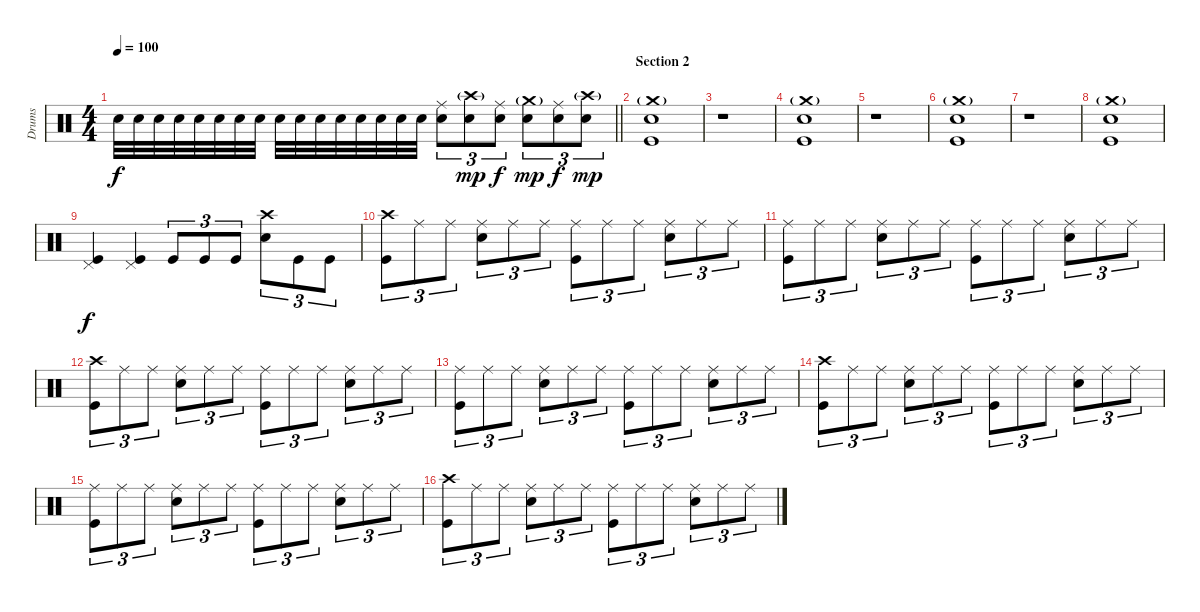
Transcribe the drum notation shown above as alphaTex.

\track ("Drums" "Drums") {instrument percussion}
\staff {score}
\articulation defaults
\ts (4 4)
\tempo 100
\clef neutral
\barLineRight lightlight
\ks c "Snare (hit) 2".32{dy f} "Snare (hit) 2".32 "Snare (hit) 2".32 "Snare (hit) 2".32 "Snare (hit) 2".32 "Snare (hit) 2".32 "Snare (hit) 2".32 "Snare (hit) 2".32 "Snare (hit) 2".32 "Snare (hit) 2".32 "Snare (hit) 2".32 "Snare (hit) 2".32 "Snare (hit) 2".32 "Snare (hit) 2".32 "Snare (hit) 2".32 "Snare (hit) 2".32
("Ride (middle)" "Snare (hit) 2").8{tu (3 2)} ("Crash high (hit)"{g} "Snare (hit) 2").8{tu (3 2) dy mp} ("Ride (middle)" "Snare (hit) 2").8{tu (3 2) dy f} ("Crash medium (hit)"{g} "Snare (hit) 2").8{tu (3 2) dy mp} ("Ride (middle)" "Snare (hit) 2").8{tu (3 2) dy f} ("Crash high (hit)"{g} "Snare (hit) 2").8{tu (3 2) dy mp} |
\section ("" "Section 2")
("Crash medium (hit)"{g} "Snare (hit) 2" "Kick (hit)").1 |
r.1 |
("Crash medium (hit)"{g} "Snare (hit) 2" "Kick (hit)").1 |
r.1 |
("Crash medium (hit)"{g} "Snare (hit) 2" "Kick (hit)").1 |
r.1 |
("Crash medium (hit)"{g} "Snare (hit) 2" "Kick (hit)").1 |
("Pedal Hi-Hat (hit)" "Kick (hit)").4{dy f} ("Pedal Hi-Hat (hit)" "Kick (hit)").4 "Kick (hit)".8{tu (3 2)} "Kick (hit)".8{tu (3 2)} "Kick (hit)".8{tu (3 2)} ("Crash high (hit)" "Snare (hit) 2").8{tu (3 2)} "Kick (hit)".8{tu (3 2)} "Kick (hit)".8{tu (3 2)} |
("Crash high (hit)" "Kick (hit)").8{tu (3 2)} "Ride (middle)".8{tu (3 2)} "Ride (middle)".8{tu (3 2)} ("Ride (middle)" "Snare (hit) 2").8{tu (3 2)} "Ride (middle)".8{tu (3 2)} "Ride (middle)".8{tu (3 2)} ("Ride (middle)" "Kick (hit)").8{tu (3 2)} "Ride (middle)".8{tu (3 2)} "Ride (middle)".8{tu (3 2)} ("Ride (middle)" "Snare (hit) 2").8{tu (3 2)} "Ride (middle)".8{tu (3 2)} "Ride (middle)".8{tu (3 2)} |
("Ride (middle)" "Kick (hit)").8{tu (3 2)} "Ride (middle)".8{tu (3 2)} "Ride (middle)".8{tu (3 2)} ("Ride (middle)" "Snare (hit) 2").8{tu (3 2)} "Ride (middle)".8{tu (3 2)} "Ride (middle)".8{tu (3 2)} ("Ride (middle)" "Kick (hit)").8{tu (3 2)} "Ride (middle)".8{tu (3 2)} "Ride (middle)".8{tu (3 2)} ("Ride (middle)" "Snare (hit) 2").8{tu (3 2)} "Ride (middle)".8{tu (3 2)} "Ride (middle)".8{tu (3 2)} |
("Crash high (hit)" "Kick (hit)").8{tu (3 2)} "Ride (middle)".8{tu (3 2)} "Ride (middle)".8{tu (3 2)} ("Ride (middle)" "Snare (hit) 2").8{tu (3 2)} "Ride (middle)".8{tu (3 2)} "Ride (middle)".8{tu (3 2)} ("Ride (middle)" "Kick (hit)").8{tu (3 2)} "Ride (middle)".8{tu (3 2)} "Ride (middle)".8{tu (3 2)} ("Ride (middle)" "Snare (hit) 2").8{tu (3 2)} "Ride (middle)".8{tu (3 2)} "Ride (middle)".8{tu (3 2)} |
("Ride (middle)" "Kick (hit)").8{tu (3 2)} "Ride (middle)".8{tu (3 2)} "Ride (middle)".8{tu (3 2)} ("Ride (middle)" "Snare (hit) 2").8{tu (3 2)} "Ride (middle)".8{tu (3 2)} "Ride (middle)".8{tu (3 2)} ("Ride (middle)" "Kick (hit)").8{tu (3 2)} "Ride (middle)".8{tu (3 2)} "Ride (middle)".8{tu (3 2)} ("Ride (middle)" "Snare (hit) 2").8{tu (3 2)} "Ride (middle)".8{tu (3 2)} "Ride (middle)".8{tu (3 2)} |
("Crash high (hit)" "Kick (hit)").8{tu (3 2)} "Ride (middle)".8{tu (3 2)} "Ride (middle)".8{tu (3 2)} ("Ride (middle)" "Snare (hit) 2").8{tu (3 2)} "Ride (middle)".8{tu (3 2)} "Ride (middle)".8{tu (3 2)} ("Ride (middle)" "Kick (hit)").8{tu (3 2)} "Ride (middle)".8{tu (3 2)} "Ride (middle)".8{tu (3 2)} ("Ride (middle)" "Snare (hit) 2").8{tu (3 2)} "Ride (middle)".8{tu (3 2)} "Ride (middle)".8{tu (3 2)} |
("Ride (middle)" "Kick (hit)").8{tu (3 2)} "Ride (middle)".8{tu (3 2)} "Ride (middle)".8{tu (3 2)} ("Ride (middle)" "Snare (hit) 2").8{tu (3 2)} "Ride (middle)".8{tu (3 2)} "Ride (middle)".8{tu (3 2)} ("Ride (middle)" "Kick (hit)").8{tu (3 2)} "Ride (middle)".8{tu (3 2)} "Ride (middle)".8{tu (3 2)} ("Ride (middle)" "Snare (hit) 2").8{tu (3 2)} "Ride (middle)".8{tu (3 2)} "Ride (middle)".8{tu (3 2)} |
("Crash high (hit)" "Kick (hit)").8{tu (3 2)} "Ride (middle)".8{tu (3 2)} "Ride (middle)".8{tu (3 2)} ("Ride (middle)" "Snare (hit) 2").8{tu (3 2)} "Ride (middle)".8{tu (3 2)} "Ride (middle)".8{tu (3 2)} ("Ride (middle)" "Kick (hit)").8{tu (3 2)} "Ride (middle)".8{tu (3 2)} "Ride (middle)".8{tu (3 2)} ("Ride (middle)" "Snare (hit) 2").8{tu (3 2)} "Ride (middle)".8{tu (3 2)} "Ride (middle)".8{tu (3 2)}
